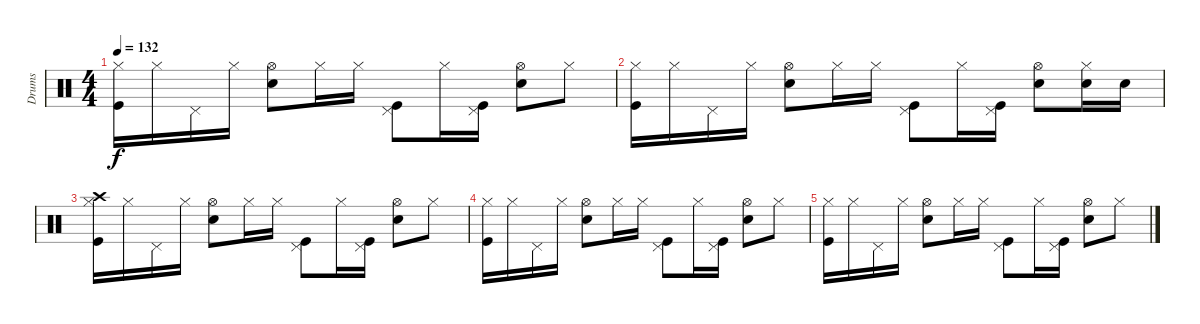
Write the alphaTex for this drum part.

\track ("Drums" "Drums") {instrument percussion}
\staff {score}
\articulation defaults
\ts (4 4)
\tempo 132
\clef neutral
\ks c
("Hi-Hat (closed)" "Kick (hit)").16{dy f} "Hi-Hat (closed)".16 "Pedal Hi-Hat (hit)".16 "Hi-Hat (closed)".16 ("Hi-Hat (open)" "Snare (hit) 2").8 "Hi-Hat (closed)".16 "Hi-Hat (closed)".16 ("Pedal Hi-Hat (hit)" "Kick (hit)").8 "Hi-Hat (closed)".16 ("Pedal Hi-Hat (hit)" "Kick (hit)").16 ("Hi-Hat (open)" "Snare (hit) 2").8 "Hi-Hat (closed)".8 |
("Hi-Hat (closed)" "Kick (hit)").16 "Hi-Hat (closed)".16 "Pedal Hi-Hat (hit)".16 "Hi-Hat (closed)".16 ("Hi-Hat (open)" "Snare (hit) 2").8 "Hi-Hat (closed)".16 "Hi-Hat (closed)".16 ("Pedal Hi-Hat (hit)" "Kick (hit)").8 "Hi-Hat (closed)".16 ("Pedal Hi-Hat (hit)" "Kick (hit)").16 ("Hi-Hat (open)" "Snare (hit) 2").8 ("Hi-Hat (closed)" "Snare (hit) 2").16 "Snare (hit) 2".16 |
("Hi-Hat (closed)" "Crash high (hit)" "Kick (hit)").16 "Hi-Hat (closed)".16 "Pedal Hi-Hat (hit)".16 "Hi-Hat (closed)".16 ("Hi-Hat (open)" "Snare (hit) 2").8 "Hi-Hat (closed)".16 "Hi-Hat (closed)".16 ("Pedal Hi-Hat (hit)" "Kick (hit)").8 "Hi-Hat (closed)".16 ("Pedal Hi-Hat (hit)" "Kick (hit)").16 ("Hi-Hat (open)" "Snare (hit) 2").8 "Hi-Hat (closed)".8 |
("Hi-Hat (closed)" "Kick (hit)").16 "Hi-Hat (closed)".16 "Pedal Hi-Hat (hit)".16 "Hi-Hat (closed)".16 ("Hi-Hat (open)" "Snare (hit) 2").8 "Hi-Hat (closed)".16 "Hi-Hat (closed)".16 ("Pedal Hi-Hat (hit)" "Kick (hit)").8 "Hi-Hat (closed)".16 ("Pedal Hi-Hat (hit)" "Kick (hit)").16 ("Hi-Hat (open)" "Snare (hit) 2").8 "Hi-Hat (closed)".8 |
("Hi-Hat (closed)" "Kick (hit)").16 "Hi-Hat (closed)".16 "Pedal Hi-Hat (hit)".16 "Hi-Hat (closed)".16 ("Hi-Hat (open)" "Snare (hit) 2").8 "Hi-Hat (closed)".16 "Hi-Hat (closed)".16 ("Pedal Hi-Hat (hit)" "Kick (hit)").8 "Hi-Hat (closed)".16 ("Pedal Hi-Hat (hit)" "Kick (hit)").16 ("Hi-Hat (open)" "Snare (hit) 2").8 "Hi-Hat (closed)".8
